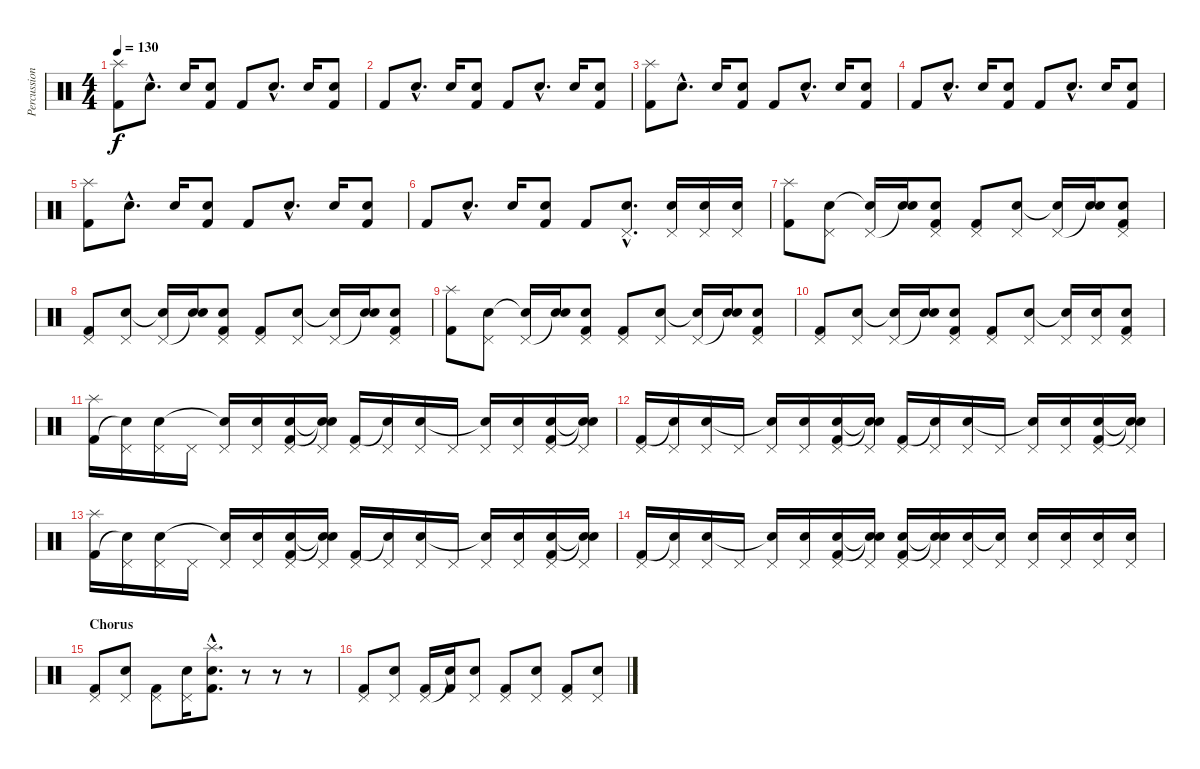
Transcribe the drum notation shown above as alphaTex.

\track ("Percussion" "Percussion") {instrument percussion}
\staff {score}
\articulation defaults
\ts (4 4)
\tempo 130
\clef neutral
\ks c
("Splash (hit)" "Kick (hit) 2").8{dy f} "Electric Snare (hit)"{hac}.8{d} "Electric Snare (hit)".16 ("Electric Snare (hit)" "Kick (hit) 2").8 "Kick (hit) 2".8 "Electric Snare (hit)"{hac}.8{d} "Electric Snare (hit)".16 ("Electric Snare (hit)" "Kick (hit) 2").8 |
"Kick (hit) 2".8 "Electric Snare (hit)"{hac}.8{d} "Electric Snare (hit)".16 ("Electric Snare (hit)" "Kick (hit) 2").8 "Kick (hit) 2".8 "Electric Snare (hit)"{hac}.8{d} "Electric Snare (hit)".16 ("Electric Snare (hit)" "Kick (hit) 2").8 |
("Splash (hit)" "Kick (hit) 2").8 "Electric Snare (hit)"{hac}.8{d} "Electric Snare (hit)".16 ("Electric Snare (hit)" "Kick (hit) 2").8 "Kick (hit) 2".8 "Electric Snare (hit)"{hac}.8{d} "Electric Snare (hit)".16 ("Electric Snare (hit)" "Kick (hit) 2").8 |
"Kick (hit) 2".8 "Electric Snare (hit)"{hac}.8{d} "Electric Snare (hit)".16 ("Electric Snare (hit)" "Kick (hit) 2").8 "Kick (hit) 2".8 "Electric Snare (hit)"{hac}.8{d} "Electric Snare (hit)".16 ("Electric Snare (hit)" "Kick (hit) 2").8 |
("Splash (hit)" "Kick (hit) 2").8 "Electric Snare (hit)"{hac}.8{d} "Electric Snare (hit)".16 ("Electric Snare (hit)" "Kick (hit) 2").8 "Kick (hit) 2".8 "Electric Snare (hit)"{hac}.8{d} "Electric Snare (hit)".16 ("Electric Snare (hit)" "Kick (hit) 2").8 |
"Kick (hit) 2".8 "Electric Snare (hit)"{hac}.8{d} "Electric Snare (hit)".16 ("Electric Snare (hit)" "Kick (hit) 2").8 "Kick (hit) 2".8 ("Pedal Hi-Hat (hit)"{hac} "Electric Snare (hit)"{hac}).8{d} ("Pedal Hi-Hat (hit)" "Electric Snare (hit)").16 ("Pedal Hi-Hat (hit)" "Electric Snare (hit)").16 ("Pedal Hi-Hat (hit)" "Electric Snare (hit)").16 |
("Splash (hit)" "Kick (hit) 2").8 ("Pedal Hi-Hat (hit)" "Electric Snare (hit)").8 ("Pedal Hi-Hat (hit)" "Snare (hit)"{t}).16 ("Snare (hit)"{t} "Electric Snare (hit)").16 ("Pedal Hi-Hat (hit)" "Electric Snare (hit)" "Kick (hit) 2").8 ("Pedal Hi-Hat (hit)" "Kick (hit) 2").8 ("Pedal Hi-Hat (hit)" "Electric Snare (hit)").8 ("Pedal Hi-Hat (hit)" "Snare (hit)"{t}).16 ("Snare (hit)"{t} "Electric Snare (hit)").16 ("Pedal Hi-Hat (hit)" "Electric Snare (hit)" "Kick (hit) 2").8 |
("Pedal Hi-Hat (hit)" "Kick (hit) 2").8 ("Pedal Hi-Hat (hit)" "Electric Snare (hit)").8 ("Pedal Hi-Hat (hit)" "Snare (hit)"{t}).16 ("Snare (hit)"{t} "Electric Snare (hit)").16 ("Pedal Hi-Hat (hit)" "Electric Snare (hit)" "Kick (hit) 2").8 ("Pedal Hi-Hat (hit)" "Kick (hit) 2").8 ("Pedal Hi-Hat (hit)" "Electric Snare (hit)").8 ("Pedal Hi-Hat (hit)" "Snare (hit)"{t}).16 ("Snare (hit)"{t} "Electric Snare (hit)").16 ("Pedal Hi-Hat (hit)" "Electric Snare (hit)" "Kick (hit) 2").8 |
("Splash (hit)" "Kick (hit) 2").8 ("Pedal Hi-Hat (hit)" "Electric Snare (hit)").8 ("Pedal Hi-Hat (hit)" "Snare (hit)"{t}).16 ("Snare (hit)"{t} "Electric Snare (hit)").16 ("Pedal Hi-Hat (hit)" "Electric Snare (hit)" "Kick (hit) 2").8 ("Pedal Hi-Hat (hit)" "Kick (hit) 2").8 ("Pedal Hi-Hat (hit)" "Electric Snare (hit)").8 ("Pedal Hi-Hat (hit)" "Snare (hit)"{t}).16 ("Snare (hit)"{t} "Electric Snare (hit)").16 ("Pedal Hi-Hat (hit)" "Electric Snare (hit)" "Kick (hit) 2").8 |
("Pedal Hi-Hat (hit)" "Kick (hit) 2").8 ("Pedal Hi-Hat (hit)" "Electric Snare (hit)").8 ("Pedal Hi-Hat (hit)" "Snare (hit)"{t}).16 ("Snare (hit)"{t} "Electric Snare (hit)").16 ("Pedal Hi-Hat (hit)" "Electric Snare (hit)" "Kick (hit) 2").8 ("Pedal Hi-Hat (hit)" "Kick (hit) 2").8 ("Pedal Hi-Hat (hit)" "Electric Snare (hit)").8 ("Pedal Hi-Hat (hit)" "Snare (hit)"{t}).16 ("Pedal Hi-Hat (hit)" "Electric Snare (hit)").16 ("Pedal Hi-Hat (hit)" "Electric Snare (hit)" "Kick (hit) 2").8 |
("Splash (hit)" "Kick (hit) 2").16 ("Pedal Hi-Hat (hit)" "Snare (hit)"{t}).16 ("Pedal Hi-Hat (hit)" "Electric Snare (hit)").16 "Pedal Hi-Hat (hit)".16 ("Pedal Hi-Hat (hit)" "Snare (hit)"{t}).16 ("Pedal Hi-Hat (hit)" "Electric Snare (hit)").16 ("Pedal Hi-Hat (hit)" "Electric Snare (hit)" "Kick (hit) 2").16 ("Pedal Hi-Hat (hit)" "Snare (hit)"{t} "Snare (hit)"{t}).16 ("Pedal Hi-Hat (hit)" "Kick (hit) 2").16 ("Pedal Hi-Hat (hit)" "Snare (hit)"{t}).16 ("Pedal Hi-Hat (hit)" "Electric Snare (hit)").16 "Pedal Hi-Hat (hit)".16 ("Pedal Hi-Hat (hit)" "Snare (hit)"{t}).16 ("Pedal Hi-Hat (hit)" "Electric Snare (hit)").16 ("Pedal Hi-Hat (hit)" "Electric Snare (hit)" "Kick (hit) 2").16 ("Pedal Hi-Hat (hit)" "Snare (hit)"{t} "Snare (hit)"{t}).16 |
("Pedal Hi-Hat (hit)" "Kick (hit) 2").16 ("Pedal Hi-Hat (hit)" "Snare (hit)"{t}).16 ("Pedal Hi-Hat (hit)" "Electric Snare (hit)").16 "Pedal Hi-Hat (hit)".16 ("Pedal Hi-Hat (hit)" "Snare (hit)"{t}).16 ("Pedal Hi-Hat (hit)" "Electric Snare (hit)").16 ("Pedal Hi-Hat (hit)" "Electric Snare (hit)" "Kick (hit) 2").16 ("Pedal Hi-Hat (hit)" "Snare (hit)"{t} "Snare (hit)"{t}).16 ("Pedal Hi-Hat (hit)" "Kick (hit) 2").16 ("Pedal Hi-Hat (hit)" "Snare (hit)"{t}).16 ("Pedal Hi-Hat (hit)" "Electric Snare (hit)").16 "Pedal Hi-Hat (hit)".16 ("Pedal Hi-Hat (hit)" "Snare (hit)"{t}).16 ("Pedal Hi-Hat (hit)" "Electric Snare (hit)").16 ("Pedal Hi-Hat (hit)" "Electric Snare (hit)" "Kick (hit) 2").16 ("Pedal Hi-Hat (hit)" "Snare (hit)"{t} "Snare (hit)"{t}).16 |
("Splash (hit)" "Kick (hit) 2").16 ("Pedal Hi-Hat (hit)" "Snare (hit)"{t}).16 ("Pedal Hi-Hat (hit)" "Electric Snare (hit)").16 "Pedal Hi-Hat (hit)".16 ("Pedal Hi-Hat (hit)" "Snare (hit)"{t}).16 ("Pedal Hi-Hat (hit)" "Electric Snare (hit)").16 ("Pedal Hi-Hat (hit)" "Electric Snare (hit)" "Kick (hit) 2").16 ("Pedal Hi-Hat (hit)" "Snare (hit)"{t} "Snare (hit)"{t}).16 ("Pedal Hi-Hat (hit)" "Kick (hit) 2").16 ("Pedal Hi-Hat (hit)" "Snare (hit)"{t}).16 ("Pedal Hi-Hat (hit)" "Electric Snare (hit)").16 "Pedal Hi-Hat (hit)".16 ("Pedal Hi-Hat (hit)" "Snare (hit)"{t}).16 ("Pedal Hi-Hat (hit)" "Electric Snare (hit)").16 ("Pedal Hi-Hat (hit)" "Electric Snare (hit)" "Kick (hit) 2").16 ("Pedal Hi-Hat (hit)" "Snare (hit)"{t} "Snare (hit)"{t}).16 |
("Pedal Hi-Hat (hit)" "Kick (hit) 2").16 ("Pedal Hi-Hat (hit)" "Snare (hit)"{t}).16 ("Pedal Hi-Hat (hit)" "Electric Snare (hit)").16 "Pedal Hi-Hat (hit)".16 ("Pedal Hi-Hat (hit)" "Snare (hit)"{t}).16 ("Pedal Hi-Hat (hit)" "Electric Snare (hit)").16 ("Pedal Hi-Hat (hit)" "Electric Snare (hit)" "Kick (hit) 2").16 ("Pedal Hi-Hat (hit)" "Snare (hit)"{t} "Snare (hit)"{t}).16 ("Pedal Hi-Hat (hit)" "Electric Snare (hit)" "Kick (hit) 2").16 ("Pedal Hi-Hat (hit)" "Snare (hit)"{t} "Snare (hit)"{t}).16 ("Pedal Hi-Hat (hit)" "Electric Snare (hit)").16 ("Pedal Hi-Hat (hit)" "Snare (hit)"{t}).16 ("Pedal Hi-Hat (hit)" "Electric Snare (hit)").16 ("Pedal Hi-Hat (hit)" "Electric Snare (hit)").16 ("Pedal Hi-Hat (hit)" "Electric Snare (hit)").16 ("Pedal Hi-Hat (hit)" "Electric Snare (hit)").16 |
\section ("" "Chorus")
("Pedal Hi-Hat (hit)" "Kick (hit) 2").8 ("Pedal Hi-Hat (hit)" "Electric Snare (hit)").8 ("Pedal Hi-Hat (hit)" "Kick (hit) 2").8 ("Pedal Hi-Hat (hit)" "Electric Snare (hit)").16 ("Splash (hit)"{hac} "Electric Snare (hit)"{hac} "Kick (hit) 2"{hac}).8{d} r.8 r.8 r.8 |
("Pedal Hi-Hat (hit)" "Kick (hit) 2").8 ("Pedal Hi-Hat (hit)" "Electric Snare (hit)").8 ("Pedal Hi-Hat (hit)" "Kick (hit) 2").16 ("Snare (hit)"{t} "Kick (hit) 2").16 ("Pedal Hi-Hat (hit)" "Electric Snare (hit)").8 ("Pedal Hi-Hat (hit)" "Kick (hit) 2").8 ("Pedal Hi-Hat (hit)" "Electric Snare (hit)").8 ("Pedal Hi-Hat (hit)" "Kick (hit) 2").8 ("Pedal Hi-Hat (hit)" "Electric Snare (hit)").8
